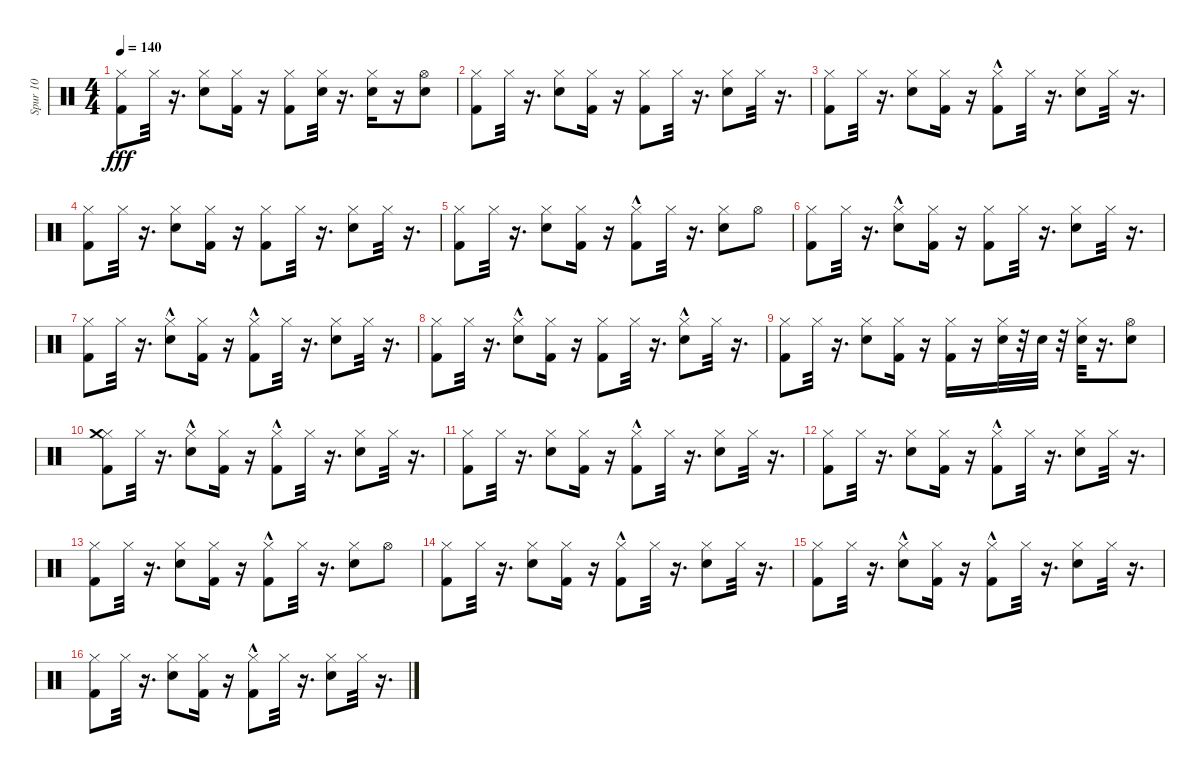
\track ("Spur 10" "Spur 10") {instrument percussion}
\staff {score}
\articulation defaults
\ts (4 4)
\tempo 140
\clef neutral
\ks c
("Kick (hit) 2" "Hi-Hat (closed)").8{dy fff} "Hi-Hat (closed)".32 r.16{d} ("Snare (hit) 2" "Hi-Hat (closed)").8 ("Kick (hit) 2" "Hi-Hat (closed)").16 r.16 ("Kick (hit) 2" "Hi-Hat (closed)").8 ("Snare (hit) 2" "Hi-Hat (closed)").32 r.16{d} ("Snare (hit) 2" "Hi-Hat (closed)").16 r.16 ("Snare (hit) 2" "Hi-Hat (open)").8 |
("Kick (hit) 2" "Hi-Hat (closed)").8 "Hi-Hat (closed)".32 r.16{d} ("Snare (hit) 2" "Hi-Hat (closed)").8 ("Kick (hit) 2" "Hi-Hat (closed)").16 r.16 ("Kick (hit) 2" "Hi-Hat (closed)").8 "Hi-Hat (closed)".32 r.16{d} ("Snare (hit) 2" "Hi-Hat (closed)").8 "Hi-Hat (closed)".32 r.16{d} |
("Kick (hit) 2" "Hi-Hat (closed)").8 "Hi-Hat (closed)".32 r.16{d} ("Snare (hit) 2" "Hi-Hat (closed)").8 ("Kick (hit) 2" "Hi-Hat (closed)").16 r.16 ("Kick (hit) 2"{hac} "Hi-Hat (closed)").8 "Hi-Hat (closed)".32 r.16{d} ("Snare (hit) 2" "Hi-Hat (closed)").8 "Hi-Hat (closed)".32 r.16{d} |
("Kick (hit) 2" "Hi-Hat (closed)").8 "Hi-Hat (closed)".32 r.16{d} ("Snare (hit) 2" "Hi-Hat (closed)").8 ("Kick (hit) 2" "Hi-Hat (closed)").16 r.16 ("Kick (hit) 2" "Hi-Hat (closed)").8 "Hi-Hat (closed)".32 r.16{d} ("Snare (hit) 2" "Hi-Hat (closed)").8 "Hi-Hat (closed)".32 r.16{d} |
("Kick (hit) 2" "Hi-Hat (closed)").8 "Hi-Hat (closed)".32 r.16{d} ("Snare (hit) 2" "Hi-Hat (closed)").8 ("Kick (hit) 2" "Hi-Hat (closed)").16 r.16 ("Kick (hit) 2"{hac} "Hi-Hat (closed)").8 "Hi-Hat (closed)".32 r.16{d} ("Snare (hit) 2" "Hi-Hat (closed)").8 "Hi-Hat (open)".8 |
("Kick (hit) 2" "Hi-Hat (closed)").8 "Hi-Hat (closed)".32 r.16{d} ("Snare (hit) 2"{hac} "Hi-Hat (closed)").8 ("Kick (hit) 2" "Hi-Hat (closed)").16 r.16 ("Kick (hit) 2" "Hi-Hat (closed)").8 "Hi-Hat (closed)".32 r.16{d} ("Snare (hit) 2" "Hi-Hat (closed)").8 "Hi-Hat (closed)".32 r.16{d} |
("Kick (hit) 2" "Hi-Hat (closed)").8 "Hi-Hat (closed)".32 r.16{d} ("Snare (hit) 2"{hac} "Hi-Hat (closed)").8 ("Kick (hit) 2" "Hi-Hat (closed)").16 r.16 ("Kick (hit) 2"{hac} "Hi-Hat (closed)").8 "Hi-Hat (closed)".32 r.16{d} ("Snare (hit) 2" "Hi-Hat (closed)").8 "Hi-Hat (closed)".32 r.16{d} |
("Kick (hit) 2" "Hi-Hat (closed)").8 "Hi-Hat (closed)".32 r.16{d} ("Snare (hit) 2"{hac} "Hi-Hat (closed)").8 ("Kick (hit) 2" "Hi-Hat (closed)").16 r.16 ("Kick (hit) 2" "Hi-Hat (closed)").8 "Hi-Hat (closed)".32 r.16{d} ("Snare (hit) 2"{hac} "Hi-Hat (closed)").8 "Hi-Hat (closed)".32 r.16{d} |
("Kick (hit) 2" "Hi-Hat (closed)").8 "Hi-Hat (closed)".32 r.16{d} ("Snare (hit) 2" "Hi-Hat (closed)").8 ("Kick (hit) 2" "Hi-Hat (closed)").16 r.16 ("Kick (hit) 2" "Hi-Hat (closed)").16 r.16 ("Snare (hit) 2" "Hi-Hat (closed)").32 r.32 "Snare (hit) 2".32 r.32 ("Snare (hit) 2" "Hi-Hat (closed)").32 r.16{d} ("Snare (hit) 2" "Hi-Hat (open)").8 |
("Kick (hit) 2" "Hi-Hat (closed)" "Crash medium (hit)").8 "Hi-Hat (closed)".32 r.16{d} ("Snare (hit) 2"{hac} "Hi-Hat (closed)").8 ("Kick (hit) 2" "Hi-Hat (closed)").16 r.16 ("Kick (hit) 2"{hac} "Hi-Hat (closed)").8 "Hi-Hat (closed)".32 r.16{d} ("Snare (hit) 2" "Hi-Hat (closed)").8 "Hi-Hat (closed)".32 r.16{d} |
("Kick (hit) 2" "Hi-Hat (closed)").8 "Hi-Hat (closed)".32 r.16{d} ("Snare (hit) 2" "Hi-Hat (closed)").8 ("Kick (hit) 2" "Hi-Hat (closed)").16 r.16 ("Kick (hit) 2"{hac} "Hi-Hat (closed)").8 "Hi-Hat (closed)".32 r.16{d} ("Snare (hit) 2" "Hi-Hat (closed)").8 "Hi-Hat (closed)".32 r.16{d} |
("Kick (hit) 2" "Hi-Hat (closed)").8 "Hi-Hat (closed)".32 r.16{d} ("Snare (hit) 2" "Hi-Hat (closed)").8 ("Kick (hit) 2" "Hi-Hat (closed)").16 r.16 ("Kick (hit) 2"{hac} "Hi-Hat (closed)").8 "Hi-Hat (closed)".32 r.16{d} ("Snare (hit) 2" "Hi-Hat (closed)").8 "Hi-Hat (closed)".32 r.16{d} |
("Kick (hit) 2" "Hi-Hat (closed)").8 "Hi-Hat (closed)".32 r.16{d} ("Snare (hit) 2" "Hi-Hat (closed)").8 ("Kick (hit) 2" "Hi-Hat (closed)").16 r.16 ("Kick (hit) 2"{hac} "Hi-Hat (closed)").8 "Hi-Hat (closed)".32 r.16{d} ("Snare (hit) 2" "Hi-Hat (closed)").8 "Hi-Hat (open)".8 |
("Kick (hit) 2" "Hi-Hat (closed)").8 "Hi-Hat (closed)".32 r.16{d} ("Snare (hit) 2" "Hi-Hat (closed)").8 ("Kick (hit) 2" "Hi-Hat (closed)").16 r.16 ("Kick (hit) 2"{hac} "Hi-Hat (closed)").8 "Hi-Hat (closed)".32 r.16{d} ("Snare (hit) 2" "Hi-Hat (closed)").8 "Hi-Hat (closed)".32 r.16{d} |
("Kick (hit) 2" "Hi-Hat (closed)").8 "Hi-Hat (closed)".32 r.16{d} ("Snare (hit) 2"{hac} "Hi-Hat (closed)").8 ("Kick (hit) 2" "Hi-Hat (closed)").16 r.16 ("Kick (hit) 2"{hac} "Hi-Hat (closed)").8 "Hi-Hat (closed)".32 r.16{d} ("Snare (hit) 2" "Hi-Hat (closed)").8 "Hi-Hat (closed)".32 r.16{d} |
("Kick (hit) 2" "Hi-Hat (closed)").8 "Hi-Hat (closed)".32 r.16{d} ("Snare (hit) 2" "Hi-Hat (closed)").8 ("Kick (hit) 2" "Hi-Hat (closed)").16 r.16 ("Kick (hit) 2"{hac} "Hi-Hat (closed)").8 "Hi-Hat (closed)".32 r.16{d} ("Snare (hit) 2" "Hi-Hat (closed)").8 "Hi-Hat (closed)".32 r.16{d}
